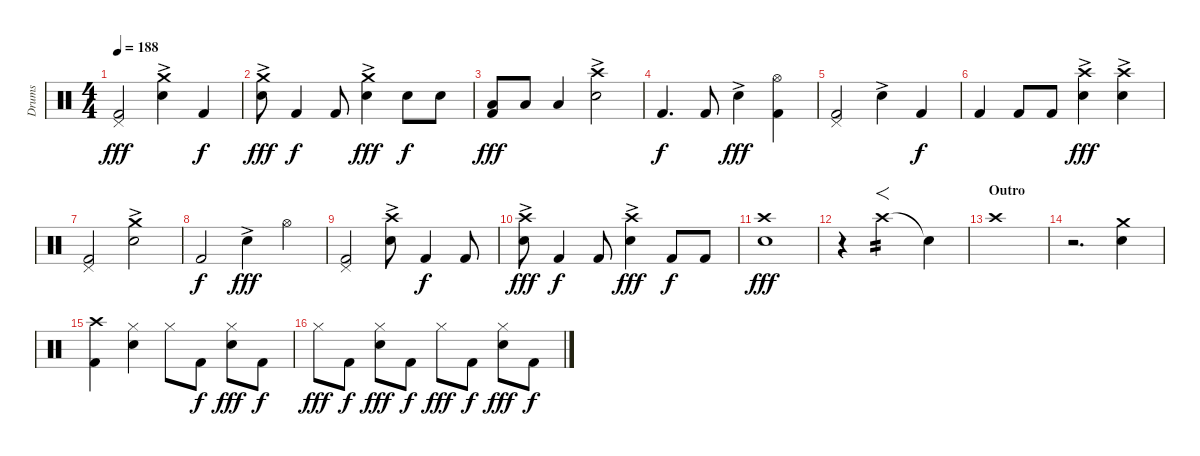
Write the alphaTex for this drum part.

\track ("Drums" "Drums") {instrument percussion}
\staff {score}
\articulation defaults
\ts (4 4)
\tempo 188
\clef neutral
\ks c
("Pedal Hi-Hat (hit)" "Kick (hit) 2").2{dy fff} ("Crash medium (hit)" "Snare (hit) 2"{ac}).4 "Kick (hit) 2".4{dy f} |
("Crash medium (hit)" "Snare (hit) 2"{ac}).8{dy fff} "Kick (hit) 2".4{dy f} "Kick (hit) 2".8 ("Crash medium (hit)" "Snare (hit) 2"{ac}).4{dy fff} "Snare (hit) 2".8{dy f} "Snare (hit) 2".8 |
("Low Floor Tom (hit)" "Kick (hit) 2").8{dy fff} "Low Floor Tom (hit)".8 "Low Floor Tom (hit)".4 ("Crash high (hit)" "Snare (hit) 2"{ac}).2 |
"Kick (hit) 2".4{d dy f} "Kick (hit) 2".8 "Snare (hit) 2"{ac}.4{dy fff} ("Hi-Hat (open)" "Kick (hit) 2").4 |
("Pedal Hi-Hat (hit)" "Kick (hit) 2").2 "Snare (hit) 2"{ac}.4 "Kick (hit) 2".4{dy f} |
"Kick (hit) 2".4 "Kick (hit) 2".8 "Kick (hit) 2".8 ("Crash high (hit)" "Snare (hit) 2"{ac}).4{dy fff} ("Crash high (hit)" "Snare (hit) 2"{ac}).4 |
("Pedal Hi-Hat (hit)" "Kick (hit) 2").2 ("Crash medium (hit)" "Snare (hit) 2"{ac}).2 |
"Kick (hit) 2".2{dy f} "Snare (hit) 2"{ac}.4{dy fff} "Hi-Hat (open)".4 |
("Pedal Hi-Hat (hit)" "Kick (hit) 2").2 ("Crash high (hit)" "Snare (hit) 2"{ac}).8 "Kick (hit) 2".4{dy f} "Kick (hit) 2".8 |
("Crash high (hit)" "Snare (hit) 2"{ac}).8{dy fff} "Kick (hit) 2".4{dy f} "Kick (hit) 2".8 ("Crash high (hit)" "Snare (hit) 2"{ac}).4{dy fff} "Kick (hit) 2".8{dy f} "Kick (hit) 2".8 |
("Crash high (hit)" "Snare (hit) 2").1{dy fff} |
r.4 "Crash high (hit)".2{f tp 2} "Snare (hit)"{t}.4 |
\section ("" "Outro")
"Crash high (hit)".1 |
r.2{d} ("Crash medium (hit)" "Snare (hit) 2").4 |
("Crash high (hit)" "Kick (hit) 2").4 ("Hi-Hat (closed)" "Snare (hit) 2").4 "Hi-Hat (closed)".8 "Kick (hit) 2".8{dy f} ("Hi-Hat (closed)" "Snare (hit) 2").8{dy fff} "Kick (hit) 2".8{dy f} |
"Hi-Hat (closed)".8{dy fff} "Kick (hit) 2".8{dy f} ("Hi-Hat (closed)" "Snare (hit) 2").8{dy fff} "Kick (hit) 2".8{dy f} "Hi-Hat (closed)".8{dy fff} "Kick (hit) 2".8{dy f} ("Hi-Hat (closed)" "Snare (hit) 2").8{dy fff} "Kick (hit) 2".8{dy f}
